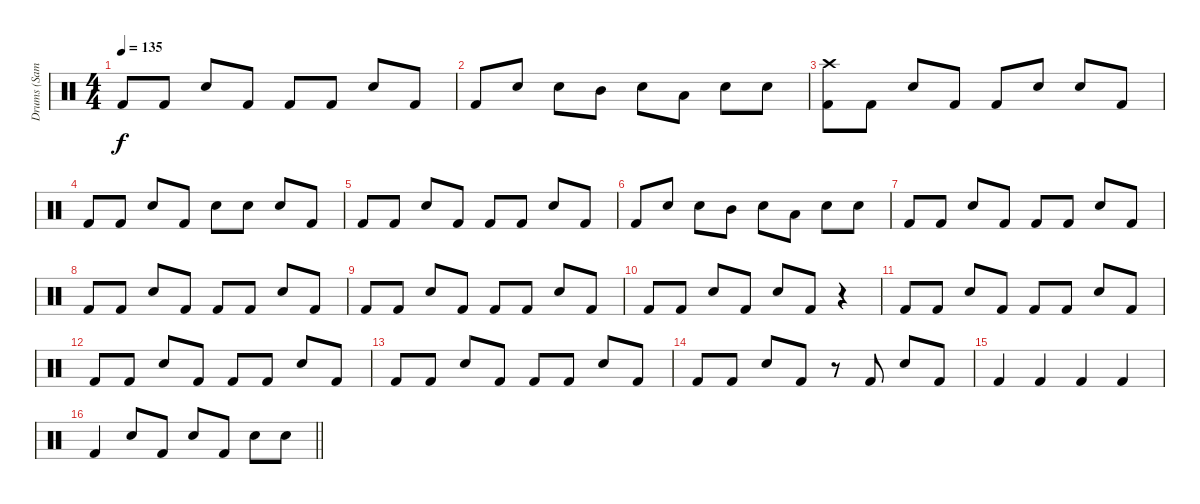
\track ("Drums (Sam Fogarino)" "Drums (Sam") {instrument percussion}
\staff {score}
\articulation defaults
\ts (4 4)
\tempo 135
\clef neutral
\ks c "Kick (hit) 2".8{dy f} "Kick (hit) 2".8 "Snare (hit) 2".8 "Kick (hit) 2".8 "Kick (hit) 2".8 "Kick (hit) 2".8 "Snare (hit) 2".8 "Kick (hit) 2".8
|
"Kick (hit) 2".8 "Snare (hit) 2".8 "Snare (hit) 2".8 "Mid Tom (hit)".8 "Snare (hit) 2".8 "Low Tom (hit)".8 "Snare (hit) 2".8 "Snare (hit) 2".8 |
("Crash high (hit)" "Kick (hit) 2").8 "Kick (hit) 2".8 "Snare (hit) 2".8 "Kick (hit) 2".8 "Kick (hit) 2".8 "Snare (hit) 2".8 "Snare (hit) 2".8 "Kick (hit) 2".8 |
"Kick (hit) 2".8 "Kick (hit) 2".8 "Snare (hit) 2".8 "Kick (hit) 2".8 "Snare (hit) 2".8 "Snare (hit) 2".8 "Snare (hit) 2".8 "Kick (hit) 2".8 |
"Kick (hit) 2".8 "Kick (hit) 2".8 "Snare (hit) 2".8 "Kick (hit) 2".8 "Kick (hit) 2".8 "Kick (hit) 2".8 "Snare (hit) 2".8 "Kick (hit) 2".8 |
"Kick (hit) 2".8 "Snare (hit) 2".8 "Snare (hit) 2".8 "Mid Tom (hit)".8 "Snare (hit) 2".8 "Low Tom (hit)".8 "Snare (hit) 2".8 "Snare (hit) 2".8 |
"Kick (hit) 2".8 "Kick (hit) 2".8 "Snare (hit) 2".8 "Kick (hit) 2".8 "Kick (hit) 2".8 "Kick (hit) 2".8 "Snare (hit) 2".8 "Kick (hit) 2".8 |
"Kick (hit) 2".8 "Kick (hit) 2".8 "Snare (hit) 2".8 "Kick (hit) 2".8 "Kick (hit) 2".8 "Kick (hit) 2".8 "Snare (hit) 2".8 "Kick (hit) 2".8 |
"Kick (hit) 2".8 "Kick (hit) 2".8 "Snare (hit) 2".8 "Kick (hit) 2".8 "Kick (hit) 2".8 "Kick (hit) 2".8 "Snare (hit) 2".8 "Kick (hit) 2".8 |
"Kick (hit) 2".8 "Kick (hit) 2".8 "Snare (hit) 2".8 "Kick (hit) 2".8 "Snare (hit) 2".8 "Kick (hit) 2".8 r.4 |
"Kick (hit) 2".8 "Kick (hit) 2".8 "Snare (hit) 2".8 "Kick (hit) 2".8 "Kick (hit) 2".8 "Kick (hit) 2".8 "Snare (hit) 2".8 "Kick (hit) 2".8 |
"Kick (hit) 2".8 "Kick (hit) 2".8 "Snare (hit) 2".8 "Kick (hit) 2".8 "Kick (hit) 2".8 "Kick (hit) 2".8 "Snare (hit) 2".8 "Kick (hit) 2".8 |
"Kick (hit) 2".8 "Kick (hit) 2".8 "Snare (hit) 2".8 "Kick (hit) 2".8 "Kick (hit) 2".8 "Kick (hit) 2".8 "Snare (hit) 2".8 "Kick (hit) 2".8 |
"Kick (hit) 2".8 "Kick (hit) 2".8 "Snare (hit) 2".8 "Kick (hit) 2".8 r.8 "Kick (hit) 2".8 "Snare (hit) 2".8 "Kick (hit) 2".8 |
"Kick (hit) 2".4 "Kick (hit) 2".4 "Kick (hit) 2".4 "Kick (hit) 2".4 |
\barLineRight lightlight "Kick (hit) 2".4 "Snare (hit) 2".8 "Kick (hit) 2".8 "Snare (hit) 2".8 "Kick (hit) 2".8 "Snare (hit) 2".8 "Snare (hit) 2".8
